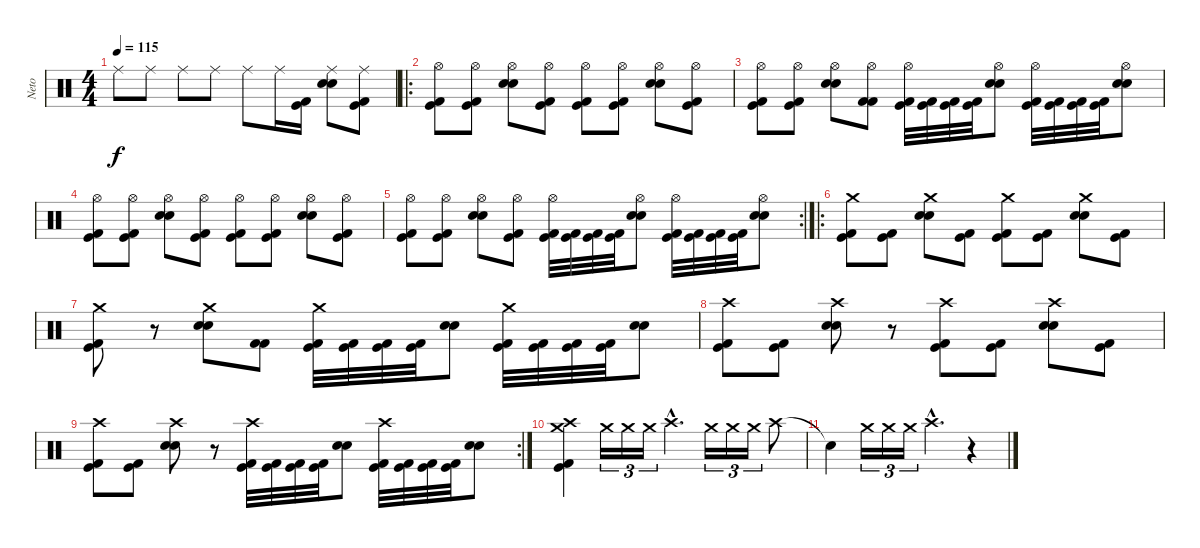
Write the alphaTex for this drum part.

\track ("Neto" "Neto") {instrument percussion}
\staff {score}
\articulation defaults
\ts (4 4)
\tempo 115
\clef neutral
\ks c "Ride (middle)".8{dy f} "Ride (middle)".8 "Ride (middle)".8 "Ride (middle)".8 "Ride (middle)".8 "Ride (middle)".16
("Kick (hit)" "Kick (hit) 2").16 ("Ride (middle)" "Snare (hit) 2" "Snare (hit) 2").8 ("Ride (middle)" "Kick (hit)" "Kick (hit) 2").8 |
\ro
("Hi-Hat (open)" "Kick (hit)" "Kick (hit) 2").8 ("Hi-Hat (open)" "Kick (hit)" "Kick (hit) 2").8 ("Hi-Hat (open)" "Snare (hit) 2" "Snare (hit) 2").8 ("Hi-Hat (open)" "Kick (hit)" "Kick (hit) 2").8 ("Hi-Hat (open)" "Kick (hit)" "Kick (hit) 2").8 ("Hi-Hat (open)" "Kick (hit)" "Kick (hit) 2").8 ("Hi-Hat (open)" "Snare (hit) 2" "Snare (hit) 2").8 ("Hi-Hat (open)" "Kick (hit)" "Kick (hit) 2").8 |
("Hi-Hat (open)" "Kick (hit)" "Kick (hit) 2").8 ("Hi-Hat (open)" "Kick (hit)" "Kick (hit) 2").8 ("Hi-Hat (open)" "Snare (hit) 2" "Snare (hit) 2").8 ("Hi-Hat (open)" "Kick (hit) 2" "Kick (hit) 2").8 ("Hi-Hat (open)" "Kick (hit)" "Kick (hit) 2").32 ("Kick (hit)" "Kick (hit) 2").32 ("Kick (hit)" "Kick (hit) 2").32 ("Kick (hit)" "Kick (hit) 2").32 ("Hi-Hat (open)" "Snare (hit) 2" "Snare (hit) 2").8 ("Hi-Hat (open)" "Kick (hit)" "Kick (hit) 2").32 ("Kick (hit)" "Kick (hit) 2").32 ("Kick (hit)" "Kick (hit) 2").32 ("Kick (hit)" "Kick (hit) 2").32 ("Hi-Hat (open)" "Snare (hit) 2" "Snare (hit) 2").8 |
("Hi-Hat (open)" "Kick (hit)" "Kick (hit) 2").8 ("Hi-Hat (open)" "Kick (hit)" "Kick (hit) 2").8 ("Hi-Hat (open)" "Snare (hit) 2" "Snare (hit) 2").8 ("Hi-Hat (open)" "Kick (hit)" "Kick (hit) 2").8 ("Hi-Hat (open)" "Kick (hit)" "Kick (hit) 2").8 ("Hi-Hat (open)" "Kick (hit)" "Kick (hit) 2").8 ("Hi-Hat (open)" "Snare (hit) 2" "Snare (hit) 2").8 ("Hi-Hat (open)" "Kick (hit)" "Kick (hit) 2").8 |
\rc 2
("Hi-Hat (open)" "Kick (hit)" "Kick (hit) 2").8 ("Hi-Hat (open)" "Kick (hit)" "Kick (hit) 2").8 ("Hi-Hat (open)" "Snare (hit) 2" "Snare (hit) 2").8 ("Hi-Hat (open)" "Kick (hit)" "Kick (hit) 2").8 ("Hi-Hat (open)" "Kick (hit)" "Kick (hit) 2").32 ("Kick (hit)" "Kick (hit) 2").32 ("Kick (hit)" "Kick (hit) 2").32 ("Kick (hit)" "Kick (hit) 2").32 ("Hi-Hat (open)" "Snare (hit) 2" "Snare (hit) 2").8 ("Hi-Hat (open)" "Kick (hit)" "Kick (hit) 2").32 ("Kick (hit)" "Kick (hit) 2").32 ("Kick (hit)" "Kick (hit) 2").32 ("Kick (hit)" "Kick (hit) 2").32 ("Hi-Hat (open)" "Snare (hit) 2" "Snare (hit) 2").8 |
\ro
("Crash medium (hit)" "Kick (hit)" "Kick (hit) 2").8 ("Kick (hit)" "Kick (hit) 2").8 ("Crash medium (hit)" "Snare (hit) 2" "Snare (hit) 2").8 ("Kick (hit)" "Kick (hit) 2").8 ("Crash medium (hit)" "Kick (hit)" "Kick (hit) 2").8 ("Kick (hit)" "Kick (hit) 2").8 ("Crash medium (hit)" "Snare (hit) 2" "Snare (hit) 2").8 ("Kick (hit)" "Kick (hit) 2").8 |
("Crash medium (hit)" "Kick (hit)" "Kick (hit) 2").8 r.8 ("Crash medium (hit)" "Snare (hit) 2" "Snare (hit) 2").8 ("Kick (hit) 2" "Kick (hit) 2").8 ("Crash medium (hit)" "Kick (hit)" "Kick (hit) 2").32 ("Kick (hit)" "Kick (hit) 2").32 ("Kick (hit)" "Kick (hit) 2").32 ("Kick (hit)" "Kick (hit) 2").32 ("Snare (hit) 2" "Snare (hit) 2").8 ("Crash medium (hit)" "Kick (hit)" "Kick (hit) 2").32 ("Kick (hit)" "Kick (hit) 2").32 ("Kick (hit)" "Kick (hit) 2").32 ("Kick (hit)" "Kick (hit) 2").32 ("Snare (hit) 2" "Snare (hit) 2").8 |
("Crash high (hit)" "Kick (hit)" "Kick (hit) 2").8 ("Kick (hit)" "Kick (hit) 2").8 ("Crash high (hit)" "Snare (hit) 2" "Snare (hit) 2").8 r.8 ("Crash high (hit)" "Kick (hit)" "Kick (hit) 2").8 ("Kick (hit)" "Kick (hit) 2").8 ("Crash high (hit)" "Snare (hit) 2" "Snare (hit) 2").8 ("Kick (hit)" "Kick (hit) 2").8 |
\rc 2
("Crash high (hit)" "Kick (hit)" "Kick (hit) 2").8 ("Kick (hit)" "Kick (hit) 2").8 ("Crash high (hit)" "Snare (hit) 2" "Snare (hit) 2").8 r.8 ("Crash high (hit)" "Kick (hit)" "Kick (hit) 2").32 ("Kick (hit)" "Kick (hit) 2").32 ("Kick (hit)" "Kick (hit) 2").32 ("Kick (hit)" "Kick (hit) 2").32 ("Snare (hit) 2" "Snare (hit) 2").8 ("Crash high (hit)" "Kick (hit)" "Kick (hit) 2").32 ("Kick (hit)" "Kick (hit) 2").32 ("Kick (hit)" "Kick (hit) 2").32 ("Kick (hit)" "Kick (hit) 2").32 ("Snare (hit) 2" "Snare (hit) 2").8 |
("Crash high (hit)" "Crash medium (hit)" "Kick (hit)" "Kick (hit) 2").4 "Crash medium (hit)".16{tu (3 2)} "Crash medium (hit)".16{tu (3 2)} "Crash medium (hit)".16{tu (3 2)} "Crash high (hit)"{hac}.4{d} "Crash medium (hit)".16{tu (3 2)} "Crash medium (hit)".16{tu (3 2)} "Crash medium (hit)".16{tu (3 2)} "Crash high (hit)".8 |
"Snare (hit)"{t}.4 "Crash medium (hit)".16{tu (3 2)} "Crash medium (hit)".16{tu (3 2)} "Crash medium (hit)".16{tu (3 2)} "Crash high (hit)"{hac}.4{d} r.4
